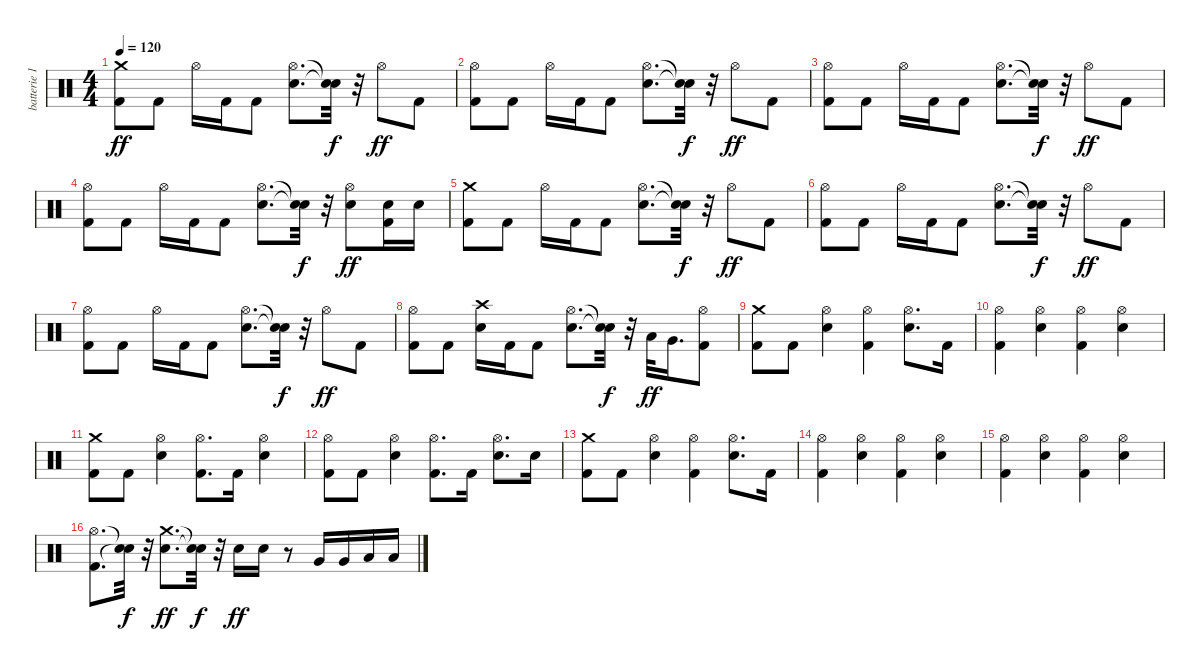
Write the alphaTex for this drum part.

\track ("batterie 1" "batterie 1") {instrument percussion}
\staff {score}
\articulation defaults
\ts (4 4)
\tempo 120
\clef neutral
\ks c
("Kick (hit) 2" "Crash medium (hit)").8{dy ff} "Kick (hit) 2".8 "Hi-Hat (open)".16 "Kick (hit) 2".16 "Kick (hit) 2".8 ("Electric Snare (hit)" "Hi-Hat (open)").8{d} ("Snare (hit)"{t} "Snare (hit)"{t}).32{dy f} r.32 "Hi-Hat (open)".8{dy ff} "Kick (hit) 2".8 |
("Kick (hit) 2" "Hi-Hat (open)").8 "Kick (hit) 2".8 "Hi-Hat (open)".16 "Kick (hit) 2".16 "Kick (hit) 2".8 ("Electric Snare (hit)" "Hi-Hat (open)").8{d} ("Snare (hit)"{t} "Snare (hit)"{t}).32{dy f} r.32 "Hi-Hat (open)".8{dy ff} "Kick (hit) 2".8 |
("Kick (hit) 2" "Hi-Hat (open)").8 "Kick (hit) 2".8 "Hi-Hat (open)".16 "Kick (hit) 2".16 "Kick (hit) 2".8 ("Electric Snare (hit)" "Hi-Hat (open)").8{d} ("Snare (hit)"{t} "Snare (hit)"{t}).32{dy f} r.32 "Hi-Hat (open)".8{dy ff} "Kick (hit) 2".8 |
("Kick (hit) 2" "Hi-Hat (open)").8 "Kick (hit) 2".8 "Hi-Hat (open)".16 "Kick (hit) 2".16 "Kick (hit) 2".8 ("Electric Snare (hit)" "Hi-Hat (open)").8{d} ("Snare (hit)"{t} "Snare (hit)"{t}).32{dy f} r.32 ("Electric Snare (hit)" "Hi-Hat (open)").8{dy ff} ("Kick (hit) 2" "Electric Snare (hit)").16 "Electric Snare (hit)".16 |
("Kick (hit) 2" "Crash medium (hit)").8 "Kick (hit) 2".8 "Hi-Hat (open)".16 "Kick (hit) 2".16 "Kick (hit) 2".8 ("Electric Snare (hit)" "Hi-Hat (open)").8{d} ("Snare (hit)"{t} "Snare (hit)"{t}).32{dy f} r.32 "Hi-Hat (open)".8{dy ff} "Kick (hit) 2".8 |
("Kick (hit) 2" "Hi-Hat (open)").8 "Kick (hit) 2".8 "Hi-Hat (open)".16 "Kick (hit) 2".16 "Kick (hit) 2".8 ("Electric Snare (hit)" "Hi-Hat (open)").8{d} ("Snare (hit)"{t} "Snare (hit)"{t}).32{dy f} r.32 "Hi-Hat (open)".8{dy ff} "Kick (hit) 2".8 |
("Kick (hit) 2" "Hi-Hat (open)").8 "Kick (hit) 2".8 "Hi-Hat (open)".16 "Kick (hit) 2".16 "Kick (hit) 2".8 ("Electric Snare (hit)" "Hi-Hat (open)").8{d} ("Snare (hit)"{t} "Snare (hit)"{t}).32{dy f} r.32 "Hi-Hat (open)".8{dy ff} "Kick (hit) 2".8 |
("Kick (hit) 2" "Hi-Hat (open)").8 "Kick (hit) 2".8 ("Electric Snare (hit)" "Crash high (hit)").16 "Kick (hit) 2".16 "Kick (hit) 2".8 ("Electric Snare (hit)" "Hi-Hat (open)").8{d} ("Snare (hit)"{t} "Snare (hit)"{t}).32{dy f} r.32 "Low Tom (hit)".32{dy ff} "Very Low Tom (hit)".16{d} ("Kick (hit) 2" "Hi-Hat (open)").8 |
("Kick (hit) 2" "Crash medium (hit)").8 "Kick (hit) 2".8 ("Electric Snare (hit)" "Hi-Hat (open)").4 ("Kick (hit) 2" "Hi-Hat (open)").4 ("Electric Snare (hit)" "Hi-Hat (open)").8{d} "Kick (hit) 2".16 |
("Kick (hit) 2" "Hi-Hat (open)").4 ("Electric Snare (hit)" "Hi-Hat (open)").4 ("Kick (hit) 2" "Hi-Hat (open)").4 ("Electric Snare (hit)" "Hi-Hat (open)").4 |
("Kick (hit) 2" "Crash medium (hit)").8 "Kick (hit) 2".8 ("Electric Snare (hit)" "Hi-Hat (open)").4 ("Kick (hit) 2" "Hi-Hat (open)").8{d} "Kick (hit) 2".16 ("Electric Snare (hit)" "Hi-Hat (open)").4 |
("Kick (hit) 2" "Hi-Hat (open)").8 "Kick (hit) 2".8 ("Electric Snare (hit)" "Hi-Hat (open)").4 ("Kick (hit) 2" "Hi-Hat (open)").8{d} "Kick (hit) 2".16 ("Electric Snare (hit)" "Hi-Hat (open)").8{d} "Electric Snare (hit)".16 |
("Kick (hit) 2" "Crash medium (hit)").8 "Kick (hit) 2".8 ("Electric Snare (hit)" "Hi-Hat (open)").4 ("Kick (hit) 2" "Hi-Hat (open)").4 ("Electric Snare (hit)" "Hi-Hat (open)").8{d} "Kick (hit) 2".16 |
("Kick (hit) 2" "Hi-Hat (open)").4 ("Electric Snare (hit)" "Hi-Hat (open)").4 ("Kick (hit) 2" "Hi-Hat (open)").4 ("Electric Snare (hit)" "Hi-Hat (open)").4 |
("Kick (hit) 2" "Hi-Hat (open)").4 ("Electric Snare (hit)" "Hi-Hat (open)").4 ("Kick (hit) 2" "Hi-Hat (open)").4 ("Electric Snare (hit)" "Hi-Hat (open)").4 |
("Kick (hit) 2" "Hi-Hat (open)").8{d} ("Snare (hit)"{t} "Snare (hit)"{t}).32{dy f} r.32 ("Electric Snare (hit)" "Crash medium (hit)").8{d dy ff} ("Snare (hit)"{t} "Snare (hit)"{t}).32{dy f} r.32 "Electric Snare (hit)".16{dy ff} "Electric Snare (hit)".16 r.8 "Very Low Tom (hit)".16 "Very Low Tom (hit)".16 "Low Floor Tom (hit)".16 "Low Floor Tom (hit)".16
